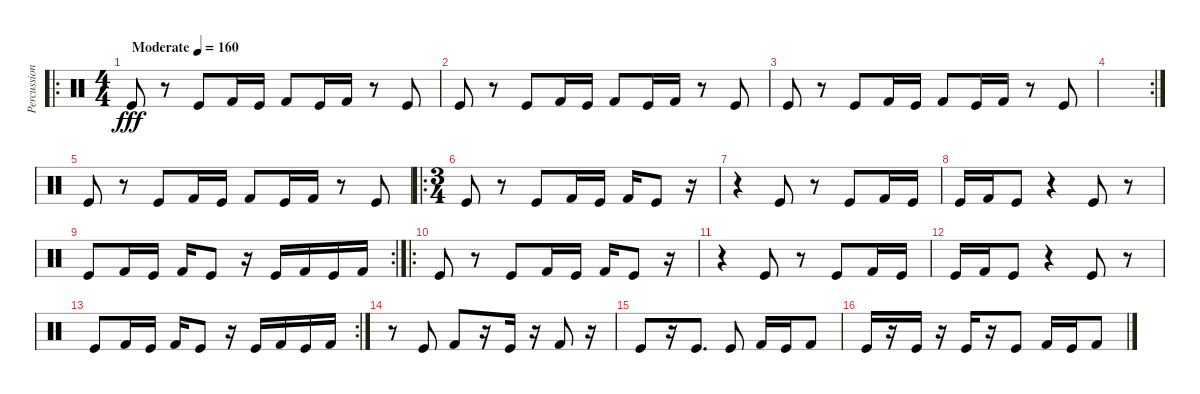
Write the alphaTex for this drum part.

\track ("Percussion" "Percussion") {instrument percussion}
\staff {score}
\articulation defaults
\ro
\ts (4 4)
\tempo (160 "Moderate")
\clef neutral
\ks c "Kick (hit)".8{dy fff}
r.8 "Kick (hit)".8 "Kick (hit) 2".16 "Kick (hit)".16 "Kick (hit) 2".8 "Kick (hit)".16 "Kick (hit) 2".16 r.8 "Kick (hit)".8 |
"Kick (hit)".8 r.8 "Kick (hit)".8 "Kick (hit) 2".16 "Kick (hit)".16 "Kick (hit) 2".8 "Kick (hit)".16 "Kick (hit) 2".16 r.8 "Kick (hit)".8 |
"Kick (hit)".8 r.8 "Kick (hit)".8 "Kick (hit) 2".16 "Kick (hit)".16 "Kick (hit) 2".8 "Kick (hit)".16 "Kick (hit) 2".16 r.8 "Kick (hit)".8 |
\rc 2
|
"Kick (hit)".8 r.8 "Kick (hit)".8 "Kick (hit) 2".16 "Kick (hit)".16 "Kick (hit) 2".8 "Kick (hit)".16 "Kick (hit) 2".16 r.8 "Kick (hit)".8 |
\ro
\ts (3 4)
"Kick (hit)".8 r.8 "Kick (hit)".8 "Kick (hit) 2".16 "Kick (hit)".16 "Kick (hit) 2".16 "Kick (hit)".8 r.16 |
r.4 "Kick (hit)".8 r.8 "Kick (hit)".8 "Kick (hit) 2".16 "Kick (hit)".16 |
"Kick (hit)".16 "Kick (hit) 2".16 "Kick (hit)".8 r.4 "Kick (hit)".8 r.8 |
\rc 2 "Kick (hit)".8 "Kick (hit) 2".16 "Kick (hit)".16 "Kick (hit) 2".16 "Kick (hit)".8
r.16 "Kick (hit)".16 "Kick (hit) 2".16 "Kick (hit)".16 "Kick (hit) 2".16 |
\ro "Kick (hit)".8
r.8 "Kick (hit)".8 "Kick (hit) 2".16 "Kick (hit)".16 "Kick (hit) 2".16 "Kick (hit)".8 r.16 |
r.4 "Kick (hit)".8 r.8 "Kick (hit)".8 "Kick (hit) 2".16 "Kick (hit)".16 |
"Kick (hit)".16 "Kick (hit) 2".16 "Kick (hit)".8 r.4 "Kick (hit)".8 r.8 |
\rc 2 "Kick (hit)".8 "Kick (hit) 2".16 "Kick (hit)".16 "Kick (hit) 2".16 "Kick (hit)".8
r.16 "Kick (hit)".16 "Kick (hit) 2".16 "Kick (hit)".16 "Kick (hit) 2".16 |
r.8 "Kick (hit)".8 "Kick (hit) 2".8 r.16 "Kick (hit)".16 r.16 "Kick (hit) 2".8 r.16 |
"Kick (hit)".8 r.16 "Kick (hit)".8{d} "Kick (hit)".8 "Kick (hit) 2".16 "Kick (hit)".16 "Kick (hit) 2".8 |
"Kick (hit)".16 r.16 "Kick (hit)".16 r.16 "Kick (hit)".16 r.16 "Kick (hit)".8 "Kick (hit) 2".16 "Kick (hit)".16 "Kick (hit) 2".8
